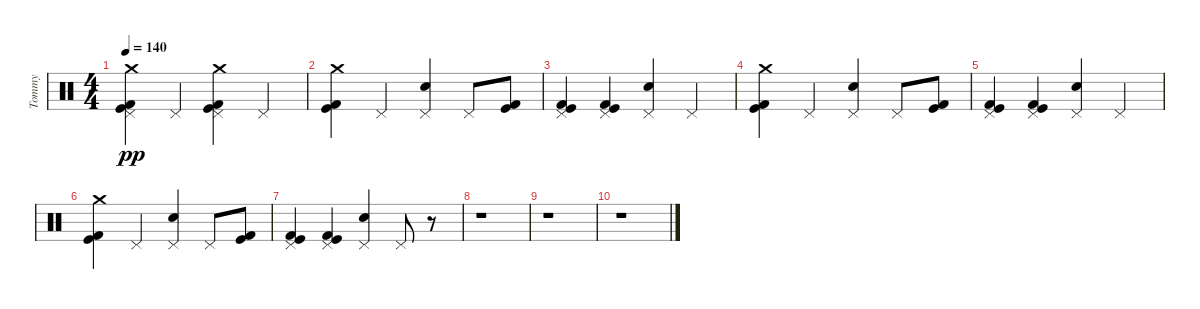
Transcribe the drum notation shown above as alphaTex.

\track ("Tommy" "Tommy") {instrument percussion}
\staff {score}
\articulation defaults
\ts (4 4)
\tempo 140
\clef neutral
\ks c
("Crash medium (hit)" "Pedal Hi-Hat (hit)" "Kick (hit)" "Kick (hit) 2").4{dy pp} "Pedal Hi-Hat (hit)".4 ("Crash medium (hit)" "Kick (hit) 2" "Kick (hit)" "Pedal Hi-Hat (hit)").4 "Pedal Hi-Hat (hit)".4 |
("Kick (hit)" "Crash medium (hit)" "Kick (hit) 2").4 "Pedal Hi-Hat (hit)".4 ("Pedal Hi-Hat (hit)" "Snare (hit) 2").4 "Pedal Hi-Hat (hit)".8 ("Kick (hit)" "Kick (hit) 2").8 |
("Pedal Hi-Hat (hit)" "Kick (hit)" "Kick (hit) 2").4 ("Pedal Hi-Hat (hit)" "Kick (hit)" "Kick (hit) 2").4 ("Snare (hit) 2" "Pedal Hi-Hat (hit)").4 "Pedal Hi-Hat (hit)".4 |
("Kick (hit)" "Crash medium (hit)" "Kick (hit) 2").4 "Pedal Hi-Hat (hit)".4 ("Pedal Hi-Hat (hit)" "Snare (hit) 2").4 "Pedal Hi-Hat (hit)".8 ("Kick (hit)" "Kick (hit) 2").8 |
("Pedal Hi-Hat (hit)" "Kick (hit)" "Kick (hit) 2").4 ("Pedal Hi-Hat (hit)" "Kick (hit)" "Kick (hit) 2").4 ("Snare (hit) 2" "Pedal Hi-Hat (hit)").4 "Pedal Hi-Hat (hit)".4 |
("Kick (hit)" "Crash medium (hit)" "Kick (hit) 2").4 "Pedal Hi-Hat (hit)".4 ("Pedal Hi-Hat (hit)" "Snare (hit) 2").4 "Pedal Hi-Hat (hit)".8 ("Kick (hit)" "Kick (hit) 2").8 |
("Pedal Hi-Hat (hit)" "Kick (hit)" "Kick (hit) 2").4 ("Pedal Hi-Hat (hit)" "Kick (hit)" "Kick (hit) 2").4 ("Snare (hit) 2" "Pedal Hi-Hat (hit)").4 "Pedal Hi-Hat (hit)".8 r.8 |
r.1 |
r.1 |
r.1
